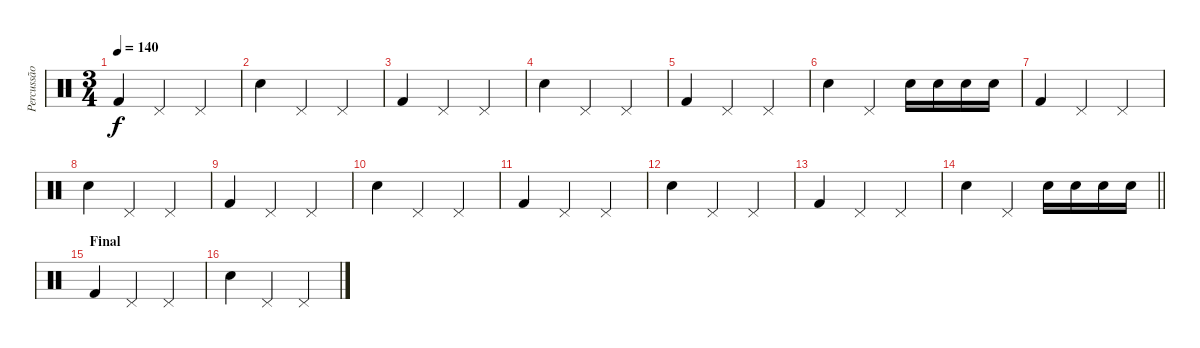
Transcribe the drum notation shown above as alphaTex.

\track ("Percussão" "Percussão") {instrument percussion}
\staff {score}
\articulation defaults
\ts (3 4)
\tempo 140
\clef neutral
\ks c "Kick (hit) 2".4{dy f} "Pedal Hi-Hat (hit)".4 "Pedal Hi-Hat (hit)".4
|
"Electric Snare (hit)".4 "Pedal Hi-Hat (hit)".4 "Pedal Hi-Hat (hit)".4 |
"Kick (hit) 2".4 "Pedal Hi-Hat (hit)".4 "Pedal Hi-Hat (hit)".4 |
"Electric Snare (hit)".4 "Pedal Hi-Hat (hit)".4 "Pedal Hi-Hat (hit)".4 |
"Kick (hit) 2".4 "Pedal Hi-Hat (hit)".4 "Pedal Hi-Hat (hit)".4 |
"Electric Snare (hit)".4 "Pedal Hi-Hat (hit)".4 "Electric Snare (hit)".16 "Electric Snare (hit)".16 "Electric Snare (hit)".16 "Electric Snare (hit)".16 |
"Kick (hit) 2".4 "Pedal Hi-Hat (hit)".4 "Pedal Hi-Hat (hit)".4 |
"Electric Snare (hit)".4 "Pedal Hi-Hat (hit)".4 "Pedal Hi-Hat (hit)".4 |
"Kick (hit) 2".4 "Pedal Hi-Hat (hit)".4 "Pedal Hi-Hat (hit)".4 |
"Electric Snare (hit)".4 "Pedal Hi-Hat (hit)".4 "Pedal Hi-Hat (hit)".4 |
"Kick (hit) 2".4 "Pedal Hi-Hat (hit)".4 "Pedal Hi-Hat (hit)".4 |
"Electric Snare (hit)".4 "Pedal Hi-Hat (hit)".4 "Pedal Hi-Hat (hit)".4 |
"Kick (hit) 2".4 "Pedal Hi-Hat (hit)".4 "Pedal Hi-Hat (hit)".4 |
\barLineRight lightlight "Electric Snare (hit)".4 "Pedal Hi-Hat (hit)".4 "Electric Snare (hit)".16 "Electric Snare (hit)".16 "Electric Snare (hit)".16 "Electric Snare (hit)".16
|
\section ("" "Final")
"Kick (hit) 2".4 "Pedal Hi-Hat (hit)".4 "Pedal Hi-Hat (hit)".4 |
"Electric Snare (hit)".4 "Pedal Hi-Hat (hit)".4 "Pedal Hi-Hat (hit)".4
